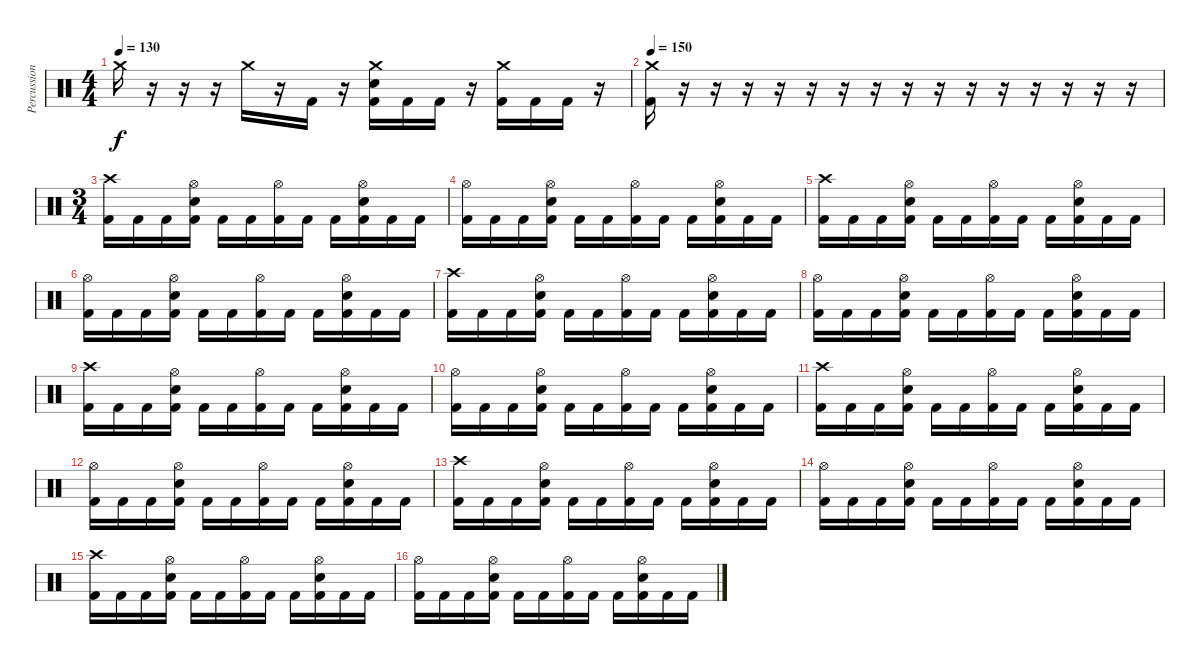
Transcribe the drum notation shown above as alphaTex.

\track ("Percussion" "Percussion") {instrument percussion}
\staff {score}
\articulation defaults
\ts (4 4)
\tempo 130
\clef neutral
\ks c "Crash medium (hit)".16{dy f}
r.16 r.16 r.16 "Crash medium (hit)".16 r.16 "Kick (hit) 2".16 r.16 ("Crash medium (hit)" "Electric Snare (hit)" "Kick (hit) 2").16 "Kick (hit) 2".16 "Kick (hit) 2".16 r.16 ("Crash medium (hit)" "Kick (hit) 2").16 "Kick (hit) 2".16 "Kick (hit) 2".16 r.16 |
\tempo 150
("Crash medium (hit)" "Kick (hit) 2").16 r.16 r.16 r.16 r.16 r.16 r.16 r.16 r.16 r.16 r.16 r.16 r.16 r.16 r.16 r.16 |
\ts (3 4)
("Crash high (hit)" "Kick (hit) 2").16 "Kick (hit) 2".16 "Kick (hit) 2".16 ("Hi-Hat (open)" "Electric Snare (hit)" "Kick (hit) 2").16 "Kick (hit) 2".16 "Kick (hit) 2".16 ("Hi-Hat (open)" "Kick (hit) 2").16 "Kick (hit) 2".16 "Kick (hit) 2".16 ("Hi-Hat (open)" "Electric Snare (hit)" "Kick (hit) 2").16 "Kick (hit) 2".16 "Kick (hit) 2".16 |
("Hi-Hat (open)" "Kick (hit) 2").16 "Kick (hit) 2".16 "Kick (hit) 2".16 ("Hi-Hat (open)" "Electric Snare (hit)" "Kick (hit) 2").16 "Kick (hit) 2".16 "Kick (hit) 2".16 ("Hi-Hat (open)" "Kick (hit) 2").16 "Kick (hit) 2".16 "Kick (hit) 2".16 ("Hi-Hat (open)" "Electric Snare (hit)" "Kick (hit) 2").16 "Kick (hit) 2".16 "Kick (hit) 2".16 |
("Crash high (hit)" "Kick (hit) 2").16 "Kick (hit) 2".16 "Kick (hit) 2".16 ("Hi-Hat (open)" "Electric Snare (hit)" "Kick (hit) 2").16 "Kick (hit) 2".16 "Kick (hit) 2".16 ("Hi-Hat (open)" "Kick (hit) 2").16 "Kick (hit) 2".16 "Kick (hit) 2".16 ("Hi-Hat (open)" "Electric Snare (hit)" "Kick (hit) 2").16 "Kick (hit) 2".16 "Kick (hit) 2".16 |
("Hi-Hat (open)" "Kick (hit) 2").16 "Kick (hit) 2".16 "Kick (hit) 2".16 ("Hi-Hat (open)" "Electric Snare (hit)" "Kick (hit) 2").16 "Kick (hit) 2".16 "Kick (hit) 2".16 ("Hi-Hat (open)" "Kick (hit) 2").16 "Kick (hit) 2".16 "Kick (hit) 2".16 ("Hi-Hat (open)" "Electric Snare (hit)" "Kick (hit) 2").16 "Kick (hit) 2".16 "Kick (hit) 2".16 |
("Crash high (hit)" "Kick (hit) 2").16 "Kick (hit) 2".16 "Kick (hit) 2".16 ("Hi-Hat (open)" "Electric Snare (hit)" "Kick (hit) 2").16 "Kick (hit) 2".16 "Kick (hit) 2".16 ("Hi-Hat (open)" "Kick (hit) 2").16 "Kick (hit) 2".16 "Kick (hit) 2".16 ("Hi-Hat (open)" "Electric Snare (hit)" "Kick (hit) 2").16 "Kick (hit) 2".16 "Kick (hit) 2".16 |
("Hi-Hat (open)" "Kick (hit) 2").16 "Kick (hit) 2".16 "Kick (hit) 2".16 ("Hi-Hat (open)" "Electric Snare (hit)" "Kick (hit) 2").16 "Kick (hit) 2".16 "Kick (hit) 2".16 ("Hi-Hat (open)" "Kick (hit) 2").16 "Kick (hit) 2".16 "Kick (hit) 2".16 ("Hi-Hat (open)" "Electric Snare (hit)" "Kick (hit) 2").16 "Kick (hit) 2".16 "Kick (hit) 2".16 |
("Crash high (hit)" "Kick (hit) 2").16 "Kick (hit) 2".16 "Kick (hit) 2".16 ("Hi-Hat (open)" "Electric Snare (hit)" "Kick (hit) 2").16 "Kick (hit) 2".16 "Kick (hit) 2".16 ("Hi-Hat (open)" "Kick (hit) 2").16 "Kick (hit) 2".16 "Kick (hit) 2".16 ("Hi-Hat (open)" "Electric Snare (hit)" "Kick (hit) 2").16 "Kick (hit) 2".16 "Kick (hit) 2".16 |
("Hi-Hat (open)" "Kick (hit) 2").16 "Kick (hit) 2".16 "Kick (hit) 2".16 ("Hi-Hat (open)" "Electric Snare (hit)" "Kick (hit) 2").16 "Kick (hit) 2".16 "Kick (hit) 2".16 ("Hi-Hat (open)" "Kick (hit) 2").16 "Kick (hit) 2".16 "Kick (hit) 2".16 ("Hi-Hat (open)" "Electric Snare (hit)" "Kick (hit) 2").16 "Kick (hit) 2".16 "Kick (hit) 2".16 |
("Crash high (hit)" "Kick (hit) 2").16 "Kick (hit) 2".16 "Kick (hit) 2".16 ("Hi-Hat (open)" "Electric Snare (hit)" "Kick (hit) 2").16 "Kick (hit) 2".16 "Kick (hit) 2".16 ("Hi-Hat (open)" "Kick (hit) 2").16 "Kick (hit) 2".16 "Kick (hit) 2".16 ("Hi-Hat (open)" "Electric Snare (hit)" "Kick (hit) 2").16 "Kick (hit) 2".16 "Kick (hit) 2".16 |
("Hi-Hat (open)" "Kick (hit) 2").16 "Kick (hit) 2".16 "Kick (hit) 2".16 ("Hi-Hat (open)" "Electric Snare (hit)" "Kick (hit) 2").16 "Kick (hit) 2".16 "Kick (hit) 2".16 ("Hi-Hat (open)" "Kick (hit) 2").16 "Kick (hit) 2".16 "Kick (hit) 2".16 ("Hi-Hat (open)" "Electric Snare (hit)" "Kick (hit) 2").16 "Kick (hit) 2".16 "Kick (hit) 2".16 |
("Crash high (hit)" "Kick (hit) 2").16 "Kick (hit) 2".16 "Kick (hit) 2".16 ("Hi-Hat (open)" "Electric Snare (hit)" "Kick (hit) 2").16 "Kick (hit) 2".16 "Kick (hit) 2".16 ("Hi-Hat (open)" "Kick (hit) 2").16 "Kick (hit) 2".16 "Kick (hit) 2".16 ("Hi-Hat (open)" "Electric Snare (hit)" "Kick (hit) 2").16 "Kick (hit) 2".16 "Kick (hit) 2".16 |
("Hi-Hat (open)" "Kick (hit) 2").16 "Kick (hit) 2".16 "Kick (hit) 2".16 ("Hi-Hat (open)" "Electric Snare (hit)" "Kick (hit) 2").16 "Kick (hit) 2".16 "Kick (hit) 2".16 ("Hi-Hat (open)" "Kick (hit) 2").16 "Kick (hit) 2".16 "Kick (hit) 2".16 ("Hi-Hat (open)" "Electric Snare (hit)" "Kick (hit) 2").16 "Kick (hit) 2".16 "Kick (hit) 2".16 |
("Crash high (hit)" "Kick (hit) 2").16 "Kick (hit) 2".16 "Kick (hit) 2".16 ("Hi-Hat (open)" "Electric Snare (hit)" "Kick (hit) 2").16 "Kick (hit) 2".16 "Kick (hit) 2".16 ("Hi-Hat (open)" "Kick (hit) 2").16 "Kick (hit) 2".16 "Kick (hit) 2".16 ("Hi-Hat (open)" "Electric Snare (hit)" "Kick (hit) 2").16 "Kick (hit) 2".16 "Kick (hit) 2".16 |
("Hi-Hat (open)" "Kick (hit) 2").16 "Kick (hit) 2".16 "Kick (hit) 2".16 ("Hi-Hat (open)" "Electric Snare (hit)" "Kick (hit) 2").16 "Kick (hit) 2".16 "Kick (hit) 2".16 ("Hi-Hat (open)" "Kick (hit) 2").16 "Kick (hit) 2".16 "Kick (hit) 2".16 ("Hi-Hat (open)" "Electric Snare (hit)" "Kick (hit) 2").16 "Kick (hit) 2".16 "Kick (hit) 2".16
